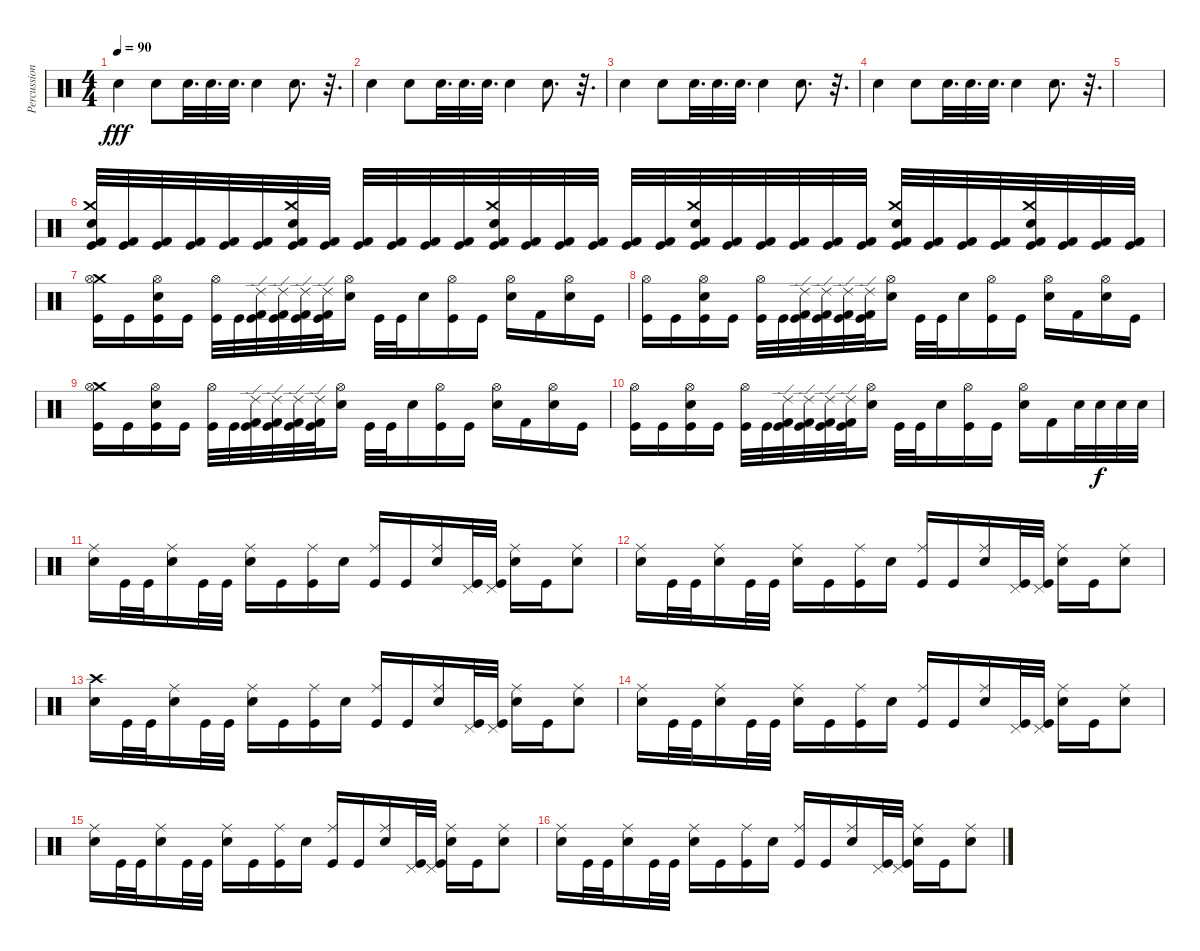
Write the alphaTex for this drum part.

\track ("Percussion" "Percussion") {instrument percussion}
\staff {score}
\articulation defaults
\ts (4 4)
\tempo 90
\clef neutral
\ks c "Electric Snare (hit)".4{dy fff} "Electric Snare (hit)".8 "Electric Snare (hit)".32{d} "Electric Snare (hit)".32{d} "Electric Snare (hit)".32{d} "Electric Snare (hit)".4 "Electric Snare (hit)".8{d}
r.32{d} |
"Electric Snare (hit)".4 "Electric Snare (hit)".8 "Electric Snare (hit)".32{d} "Electric Snare (hit)".32{d} "Electric Snare (hit)".32{d} "Electric Snare (hit)".4 "Electric Snare (hit)".8{d} r.32{d} |
"Electric Snare (hit)".4 "Electric Snare (hit)".8 "Electric Snare (hit)".32{d} "Electric Snare (hit)".32{d} "Electric Snare (hit)".32{d} "Electric Snare (hit)".4 "Electric Snare (hit)".8{d} r.32{d} |
"Electric Snare (hit)".4 "Electric Snare (hit)".8 "Electric Snare (hit)".32{d} "Electric Snare (hit)".32{d} "Electric Snare (hit)".32{d} "Electric Snare (hit)".4 "Electric Snare (hit)".8{d} r.32{d} |
|
("Crash medium (hit)" "Electric Snare (hit)" "Kick (hit) 2" "Kick (hit)").32 ("Kick (hit) 2" "Kick (hit)").32 ("Kick (hit) 2" "Kick (hit)").32 ("Kick (hit) 2" "Kick (hit)").32 ("Kick (hit) 2" "Kick (hit)").32 ("Kick (hit) 2" "Kick (hit)").32 ("Crash medium (hit)" "Electric Snare (hit)" "Kick (hit) 2" "Kick (hit)").32 ("Kick (hit) 2" "Kick (hit)").32 ("Kick (hit) 2" "Kick (hit)").32 ("Kick (hit) 2" "Kick (hit)").32 ("Kick (hit) 2" "Kick (hit)").32 ("Kick (hit) 2" "Kick (hit)").32 ("Crash medium (hit)" "Electric Snare (hit)" "Kick (hit) 2" "Kick (hit)").32 ("Kick (hit) 2" "Kick (hit)").32 ("Kick (hit) 2" "Kick (hit)").32 ("Kick (hit) 2" "Kick (hit)").32 ("Kick (hit) 2" "Kick (hit)").32 ("Kick (hit) 2" "Kick (hit)").32 ("Crash medium (hit)" "Electric Snare (hit)" "Kick (hit) 2" "Kick (hit)").32 ("Kick (hit) 2" "Kick (hit)").32 ("Kick (hit) 2" "Kick (hit)").32 ("Kick (hit) 2" "Kick (hit)").32 ("Kick (hit) 2" "Kick (hit)").32 ("Kick (hit) 2" "Kick (hit)").32 ("Crash medium (hit)" "Electric Snare (hit)" "Kick (hit) 2" "Kick (hit)").32 ("Kick (hit) 2" "Kick (hit)").32 ("Kick (hit) 2" "Kick (hit)").32 ("Kick (hit) 2" "Kick (hit)").32 ("Crash medium (hit)" "Electric Snare (hit)" "Kick (hit) 2" "Kick (hit)").32 ("Kick (hit) 2" "Kick (hit)").32 ("Kick (hit) 2" "Kick (hit)").32 ("Kick (hit) 2" "Kick (hit)").32 |
("Crash medium (hit)" "Hi-Hat (open)" "Kick (hit)").16 "Kick (hit)".16 ("Hi-Hat (open)" "Electric Snare (hit)" "Kick (hit)").16 "Kick (hit)".16 ("Hi-Hat (open)" "Kick (hit)").32 "Kick (hit)".32 ("Ride (edge) 2" "Kick (hit) 2" "Kick (hit)").32 ("Ride (edge) 2" "Kick (hit) 2" "Kick (hit)").32 ("Ride (edge) 2" "Kick (hit) 2" "Kick (hit)").32 ("Ride (edge) 2" "Kick (hit) 2" "Kick (hit)").32 ("Hi-Hat (open)" "Electric Snare (hit)").16 "Kick (hit)".32 "Kick (hit)".32 "Electric Snare (hit)".16 ("Hi-Hat (open)" "Kick (hit)").16 "Kick (hit)".16 ("Hi-Hat (open)" "Electric Snare (hit)").16 "Kick (hit) 2".16 ("Hi-Hat (open)" "Electric Snare (hit)").16 "Kick (hit)".16 |
("Hi-Hat (open)" "Kick (hit)").16 "Kick (hit)".16 ("Hi-Hat (open)" "Electric Snare (hit)" "Kick (hit)").16 "Kick (hit)".16 ("Hi-Hat (open)" "Kick (hit)").32 "Kick (hit)".32 ("Ride (edge) 2" "Kick (hit) 2" "Kick (hit)").32 ("Ride (edge) 2" "Kick (hit) 2" "Kick (hit)").32 ("Ride (edge) 2" "Kick (hit) 2" "Kick (hit)").32 ("Ride (edge) 2" "Kick (hit) 2" "Kick (hit)").32 ("Hi-Hat (open)" "Electric Snare (hit)").16 "Kick (hit)".32 "Kick (hit)".32 "Electric Snare (hit)".16 ("Hi-Hat (open)" "Kick (hit)").16 "Kick (hit)".16 ("Hi-Hat (open)" "Electric Snare (hit)").16 "Kick (hit) 2".16 ("Hi-Hat (open)" "Electric Snare (hit)").16 "Kick (hit)".16 |
("Crash medium (hit)" "Hi-Hat (open)" "Kick (hit)").16 "Kick (hit)".16 ("Hi-Hat (open)" "Electric Snare (hit)" "Kick (hit)").16 "Kick (hit)".16 ("Hi-Hat (open)" "Kick (hit)").32 "Kick (hit)".32 ("Ride (edge) 2" "Kick (hit) 2" "Kick (hit)").32 ("Ride (edge) 2" "Kick (hit) 2" "Kick (hit)").32 ("Ride (edge) 2" "Kick (hit) 2" "Kick (hit)").32 ("Ride (edge) 2" "Kick (hit) 2" "Kick (hit)").32 ("Hi-Hat (open)" "Electric Snare (hit)").16 "Kick (hit)".32 "Kick (hit)".32 "Electric Snare (hit)".16 ("Hi-Hat (open)" "Kick (hit)").16 "Kick (hit)".16 ("Hi-Hat (open)" "Electric Snare (hit)").16 "Kick (hit) 2".16 ("Hi-Hat (open)" "Electric Snare (hit)").16 "Kick (hit)".16 |
("Hi-Hat (open)" "Kick (hit)").16 "Kick (hit)".16 ("Hi-Hat (open)" "Electric Snare (hit)" "Kick (hit)").16 "Kick (hit)".16 ("Hi-Hat (open)" "Kick (hit)").32 "Kick (hit)".32 ("Ride (edge) 2" "Kick (hit) 2" "Kick (hit)").32 ("Ride (edge) 2" "Kick (hit) 2" "Kick (hit)").32 ("Ride (edge) 2" "Kick (hit) 2" "Kick (hit)").32 ("Ride (edge) 2" "Kick (hit) 2" "Kick (hit)").32 ("Hi-Hat (open)" "Electric Snare (hit)").16 "Kick (hit)".32 "Kick (hit)".32 "Electric Snare (hit)".16 ("Hi-Hat (open)" "Kick (hit)").16 "Kick (hit)".16 ("Hi-Hat (open)" "Electric Snare (hit)").16 "Kick (hit) 2".16 "Electric Snare (hit)".32 "Electric Snare (hit)".32{dy f} "Electric Snare (hit)".32 "Electric Snare (hit)".32 |
("Ride (middle)" "Electric Snare (hit)").16 "Kick (hit)".32 "Kick (hit)".32 ("Ride (middle)" "Electric Snare (hit)").16 "Kick (hit)".32 "Kick (hit)".32 ("Ride (middle)" "Electric Snare (hit)").16 "Kick (hit)".16 ("Ride (middle)" "Kick (hit)").16 "Electric Snare (hit)".16 ("Ride (middle)" "Kick (hit)").16 "Kick (hit)".16 ("Ride (middle)" "Electric Snare (hit)").16 ("Pedal Hi-Hat (hit)" "Kick (hit)").32 ("Pedal Hi-Hat (hit)" "Kick (hit)").32 ("Ride (middle)" "Electric Snare (hit)").16 "Kick (hit)".16 ("Ride (middle)" "Electric Snare (hit)").8 |
("Ride (middle)" "Electric Snare (hit)").16 "Kick (hit)".32 "Kick (hit)".32 ("Ride (middle)" "Electric Snare (hit)").16 "Kick (hit)".32 "Kick (hit)".32 ("Ride (middle)" "Electric Snare (hit)").16 "Kick (hit)".16 ("Ride (middle)" "Kick (hit)").16 "Electric Snare (hit)".16 ("Ride (middle)" "Kick (hit)").16 "Kick (hit)".16 ("Ride (middle)" "Electric Snare (hit)").16 ("Pedal Hi-Hat (hit)" "Kick (hit)").32 ("Pedal Hi-Hat (hit)" "Kick (hit)").32 ("Ride (middle)" "Electric Snare (hit)").16 "Kick (hit)".16 ("Ride (middle)" "Electric Snare (hit)").8 |
("Crash high (hit)" "Electric Snare (hit)").16 "Kick (hit)".32 "Kick (hit)".32 ("Ride (middle)" "Electric Snare (hit)").16 "Kick (hit)".32 "Kick (hit)".32 ("Ride (middle)" "Electric Snare (hit)").16 "Kick (hit)".16 ("Ride (middle)" "Kick (hit)").16 "Electric Snare (hit)".16 ("Ride (middle)" "Kick (hit)").16 "Kick (hit)".16 ("Ride (middle)" "Electric Snare (hit)").16 ("Pedal Hi-Hat (hit)" "Kick (hit)").32 ("Pedal Hi-Hat (hit)" "Kick (hit)").32 ("Ride (middle)" "Electric Snare (hit)").16 "Kick (hit)".16 ("Ride (middle)" "Electric Snare (hit)").8 |
("Ride (middle)" "Electric Snare (hit)").16 "Kick (hit)".32 "Kick (hit)".32 ("Ride (middle)" "Electric Snare (hit)").16 "Kick (hit)".32 "Kick (hit)".32 ("Ride (middle)" "Electric Snare (hit)").16 "Kick (hit)".16 ("Ride (middle)" "Kick (hit)").16 "Electric Snare (hit)".16 ("Ride (middle)" "Kick (hit)").16 "Kick (hit)".16 ("Ride (middle)" "Electric Snare (hit)").16 ("Pedal Hi-Hat (hit)" "Kick (hit)").32 ("Pedal Hi-Hat (hit)" "Kick (hit)").32 ("Ride (middle)" "Electric Snare (hit)").16 "Kick (hit)".16 ("Ride (middle)" "Electric Snare (hit)").8 |
("Ride (middle)" "Electric Snare (hit)").16 "Kick (hit)".32 "Kick (hit)".32 ("Ride (middle)" "Electric Snare (hit)").16 "Kick (hit)".32 "Kick (hit)".32 ("Ride (middle)" "Electric Snare (hit)").16 "Kick (hit)".16 ("Ride (middle)" "Kick (hit)").16 "Electric Snare (hit)".16 ("Ride (middle)" "Kick (hit)").16 "Kick (hit)".16 ("Ride (middle)" "Electric Snare (hit)").16 ("Pedal Hi-Hat (hit)" "Kick (hit)").32 ("Pedal Hi-Hat (hit)" "Kick (hit)").32 ("Ride (middle)" "Electric Snare (hit)").16 "Kick (hit)".16 ("Ride (middle)" "Electric Snare (hit)").8 |
("Ride (middle)" "Electric Snare (hit)").16 "Kick (hit)".32 "Kick (hit)".32 ("Ride (middle)" "Electric Snare (hit)").16 "Kick (hit)".32 "Kick (hit)".32 ("Ride (middle)" "Electric Snare (hit)").16 "Kick (hit)".16 ("Ride (middle)" "Kick (hit)").16 "Electric Snare (hit)".16 ("Ride (middle)" "Kick (hit)").16 "Kick (hit)".16 ("Ride (middle)" "Electric Snare (hit)").16 ("Pedal Hi-Hat (hit)" "Kick (hit)").32 ("Pedal Hi-Hat (hit)" "Kick (hit)").32 ("Ride (middle)" "Electric Snare (hit)").16 "Kick (hit)".16 ("Ride (middle)" "Electric Snare (hit)").8
